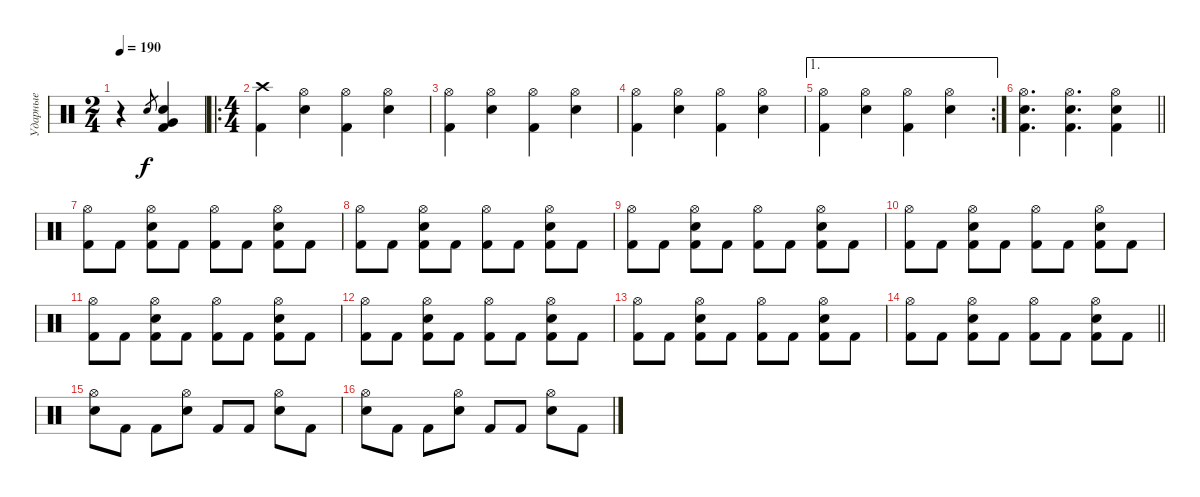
\track ("Ударные" "Ударные") {instrument percussion}
\staff
\articulation defaults
\ts (2 4)
\tempo 190
\clef neutral
\ks c
r.4{dy f} "Electric Snare (hit)".8{gr} ("Kick (hit) 2" "Electric Snare (hit)" "Very Low Tom (hit)").4 |
\ro
\ts (4 4)
("Kick (hit) 2" "Crash high (hit)").4 ("Snare (hit) 2" "Hi-Hat (open)").4 ("Kick (hit) 2" "Hi-Hat (open)").4 ("Snare (hit) 2" "Hi-Hat (open)").4 |
("Kick (hit) 2" "Hi-Hat (open)").4 ("Snare (hit) 2" "Hi-Hat (open)").4 ("Kick (hit) 2" "Hi-Hat (open)").4 ("Snare (hit) 2" "Hi-Hat (open)").4 |
("Kick (hit) 2" "Hi-Hat (open)").4 ("Snare (hit) 2" "Hi-Hat (open)").4 ("Kick (hit) 2" "Hi-Hat (open)").4 ("Snare (hit) 2" "Hi-Hat (open)").4 |
\ae 1
\rc 2
("Kick (hit) 2" "Hi-Hat (open)").4 ("Snare (hit) 2" "Hi-Hat (open)").4 ("Kick (hit) 2" "Hi-Hat (open)").4 ("Snare (hit) 2" "Hi-Hat (open)").4 |
\barLineRight lightlight
("Kick (hit) 2" "Snare (hit) 2" "Hi-Hat (open)").4{d} ("Kick (hit) 2" "Snare (hit) 2" "Hi-Hat (open)").4{d} ("Kick (hit) 2" "Snare (hit) 2" "Hi-Hat (open)").4 |
("Kick (hit) 2" "Hi-Hat (open)").8 "Kick (hit) 2".8 ("Kick (hit) 2" "Snare (hit) 2" "Hi-Hat (open)").8 "Kick (hit) 2".8 ("Kick (hit) 2" "Hi-Hat (open)").8 "Kick (hit) 2".8 ("Kick (hit) 2" "Snare (hit) 2" "Hi-Hat (open)").8 "Kick (hit) 2".8 |
("Kick (hit) 2" "Hi-Hat (open)").8 "Kick (hit) 2".8 ("Kick (hit) 2" "Snare (hit) 2" "Hi-Hat (open)").8 "Kick (hit) 2".8 ("Kick (hit) 2" "Hi-Hat (open)").8 "Kick (hit) 2".8 ("Kick (hit) 2" "Snare (hit) 2" "Hi-Hat (open)").8 "Kick (hit) 2".8 |
("Kick (hit) 2" "Hi-Hat (open)").8 "Kick (hit) 2".8 ("Kick (hit) 2" "Snare (hit) 2" "Hi-Hat (open)").8 "Kick (hit) 2".8 ("Kick (hit) 2" "Hi-Hat (open)").8 "Kick (hit) 2".8 ("Kick (hit) 2" "Snare (hit) 2" "Hi-Hat (open)").8 "Kick (hit) 2".8 |
("Kick (hit) 2" "Hi-Hat (open)").8 "Kick (hit) 2".8 ("Kick (hit) 2" "Snare (hit) 2" "Hi-Hat (open)").8 "Kick (hit) 2".8 ("Kick (hit) 2" "Hi-Hat (open)").8 "Kick (hit) 2".8 ("Kick (hit) 2" "Snare (hit) 2" "Hi-Hat (open)").8 "Kick (hit) 2".8 |
("Kick (hit) 2" "Hi-Hat (open)").8 "Kick (hit) 2".8 ("Kick (hit) 2" "Snare (hit) 2" "Hi-Hat (open)").8 "Kick (hit) 2".8 ("Kick (hit) 2" "Hi-Hat (open)").8 "Kick (hit) 2".8 ("Kick (hit) 2" "Snare (hit) 2" "Hi-Hat (open)").8 "Kick (hit) 2".8 |
("Kick (hit) 2" "Hi-Hat (open)").8 "Kick (hit) 2".8 ("Kick (hit) 2" "Snare (hit) 2" "Hi-Hat (open)").8 "Kick (hit) 2".8 ("Kick (hit) 2" "Hi-Hat (open)").8 "Kick (hit) 2".8 ("Kick (hit) 2" "Snare (hit) 2" "Hi-Hat (open)").8 "Kick (hit) 2".8 |
("Kick (hit) 2" "Hi-Hat (open)").8 "Kick (hit) 2".8 ("Kick (hit) 2" "Snare (hit) 2" "Hi-Hat (open)").8 "Kick (hit) 2".8 ("Kick (hit) 2" "Hi-Hat (open)").8 "Kick (hit) 2".8 ("Kick (hit) 2" "Snare (hit) 2" "Hi-Hat (open)").8 "Kick (hit) 2".8 |
\barLineRight lightlight
("Kick (hit) 2" "Hi-Hat (open)").8 "Kick (hit) 2".8 ("Kick (hit) 2" "Snare (hit) 2" "Hi-Hat (open)").8 "Kick (hit) 2".8 ("Kick (hit) 2" "Hi-Hat (open)").8 "Kick (hit) 2".8 ("Kick (hit) 2" "Snare (hit) 2" "Hi-Hat (open)").8 "Kick (hit) 2".8 |
("Snare (hit) 2" "Hi-Hat (open)").8 "Kick (hit) 2".8 "Kick (hit) 2".8 ("Snare (hit) 2" "Hi-Hat (open)").8 "Kick (hit) 2".8 "Kick (hit) 2".8 ("Snare (hit) 2" "Hi-Hat (open)").8 "Kick (hit) 2".8 |
("Snare (hit) 2" "Hi-Hat (open)").8 "Kick (hit) 2".8 "Kick (hit) 2".8 ("Snare (hit) 2" "Hi-Hat (open)").8 "Kick (hit) 2".8 "Kick (hit) 2".8 ("Snare (hit) 2" "Hi-Hat (open)").8 "Kick (hit) 2".8
